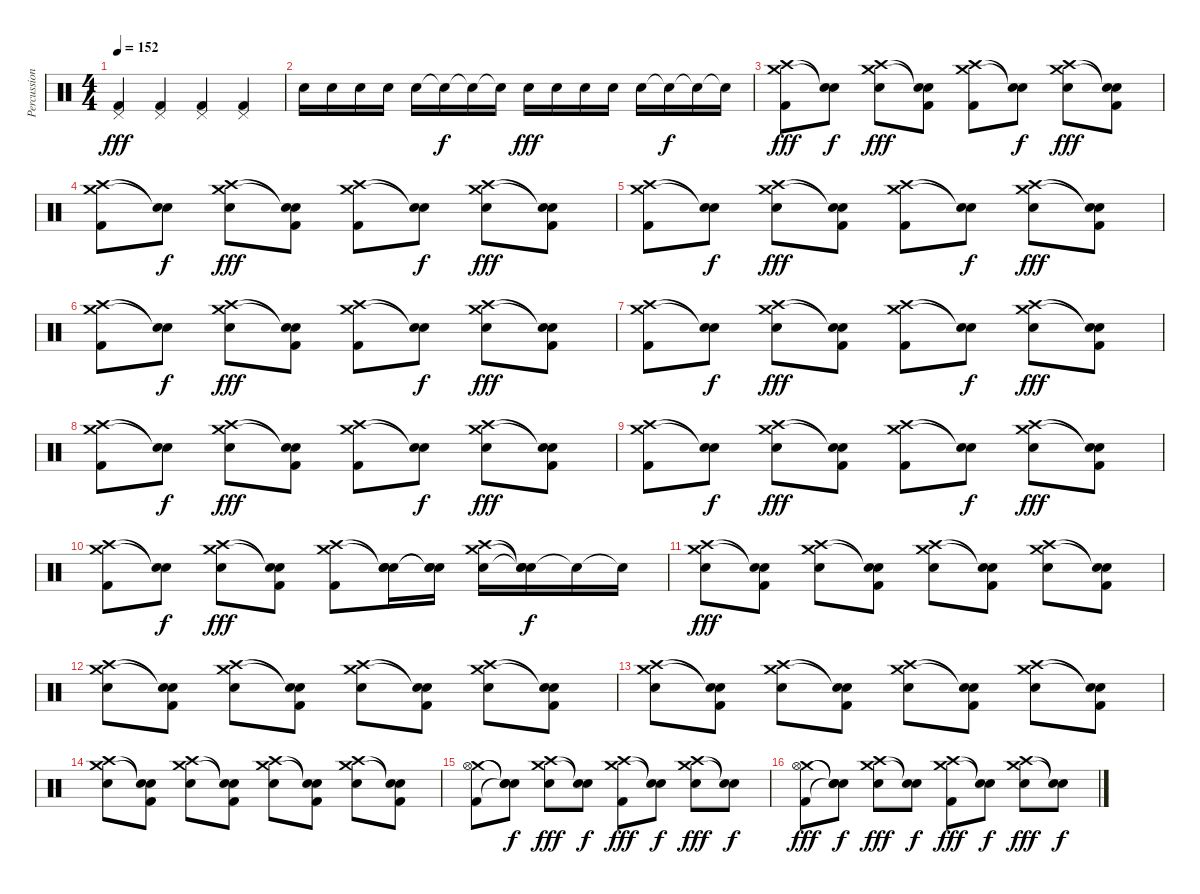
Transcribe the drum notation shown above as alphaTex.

\track ("Percussion" "Percussion") {instrument percussion}
\staff {score}
\articulation defaults
\ts (4 4)
\tempo 152
\clef neutral
\ks c
("Pedal Hi-Hat (hit)" "Kick (hit) 2").4{dy fff} ("Pedal Hi-Hat (hit)" "Kick (hit) 2").4 ("Pedal Hi-Hat (hit)" "Kick (hit) 2").4 ("Pedal Hi-Hat (hit)" "Kick (hit) 2").4 |
"Electric Snare (hit)".16 "Electric Snare (hit)".16 "Electric Snare (hit)".16 "Electric Snare (hit)".16 "Electric Snare (hit)".16 "Snare (hit)"{t}.16{dy f} "Snare (hit)"{t}.16 "Snare (hit)"{t}.16 "Electric Snare (hit)".16{dy fff} "Electric Snare (hit)".16 "Electric Snare (hit)".16 "Electric Snare (hit)".16 "Electric Snare (hit)".16 "Snare (hit)"{t}.16{dy f} "Snare (hit)"{t}.16 "Snare (hit)"{t}.16 |
("Crash medium (hit)" "Crash high (hit)" "Kick (hit) 2").8{dy fff} ("Snare (hit)"{t} "Snare (hit)"{t}).8{dy f} ("Crash medium (hit)" "Crash high (hit)" "Electric Snare (hit)").8{dy fff} ("Snare (hit)"{t} "Snare (hit)"{t} "Kick (hit) 2").8 ("Crash medium (hit)" "Crash high (hit)" "Kick (hit) 2").8 ("Snare (hit)"{t} "Snare (hit)"{t}).8{dy f} ("Crash medium (hit)" "Crash high (hit)" "Electric Snare (hit)").8{dy fff} ("Snare (hit)"{t} "Snare (hit)"{t} "Kick (hit) 2").8 |
("Crash medium (hit)" "Crash high (hit)" "Kick (hit) 2").8 ("Snare (hit)"{t} "Snare (hit)"{t}).8{dy f} ("Crash medium (hit)" "Crash high (hit)" "Electric Snare (hit)").8{dy fff} ("Snare (hit)"{t} "Snare (hit)"{t} "Kick (hit) 2").8 ("Crash medium (hit)" "Crash high (hit)" "Kick (hit) 2").8 ("Snare (hit)"{t} "Snare (hit)"{t}).8{dy f} ("Crash medium (hit)" "Crash high (hit)" "Electric Snare (hit)").8{dy fff} ("Snare (hit)"{t} "Snare (hit)"{t} "Kick (hit) 2").8 |
("Crash medium (hit)" "Crash high (hit)" "Kick (hit) 2").8 ("Snare (hit)"{t} "Snare (hit)"{t}).8{dy f} ("Crash medium (hit)" "Crash high (hit)" "Electric Snare (hit)").8{dy fff} ("Snare (hit)"{t} "Snare (hit)"{t} "Kick (hit) 2").8 ("Crash medium (hit)" "Crash high (hit)" "Kick (hit) 2").8 ("Snare (hit)"{t} "Snare (hit)"{t}).8{dy f} ("Crash medium (hit)" "Crash high (hit)" "Electric Snare (hit)").8{dy fff} ("Snare (hit)"{t} "Snare (hit)"{t} "Kick (hit) 2").8 |
("Crash medium (hit)" "Crash high (hit)" "Kick (hit) 2").8 ("Snare (hit)"{t} "Snare (hit)"{t}).8{dy f} ("Crash medium (hit)" "Crash high (hit)" "Electric Snare (hit)").8{dy fff} ("Snare (hit)"{t} "Snare (hit)"{t} "Kick (hit) 2").8 ("Crash medium (hit)" "Crash high (hit)" "Kick (hit) 2").8 ("Snare (hit)"{t} "Snare (hit)"{t}).8{dy f} ("Crash medium (hit)" "Crash high (hit)" "Electric Snare (hit)").8{dy fff} ("Snare (hit)"{t} "Snare (hit)"{t} "Kick (hit) 2").8 |
("Crash medium (hit)" "Crash high (hit)" "Kick (hit) 2").8 ("Snare (hit)"{t} "Snare (hit)"{t}).8{dy f} ("Crash medium (hit)" "Crash high (hit)" "Electric Snare (hit)").8{dy fff} ("Snare (hit)"{t} "Snare (hit)"{t} "Kick (hit) 2").8 ("Crash medium (hit)" "Crash high (hit)" "Kick (hit) 2").8 ("Snare (hit)"{t} "Snare (hit)"{t}).8{dy f} ("Crash medium (hit)" "Crash high (hit)" "Electric Snare (hit)").8{dy fff} ("Snare (hit)"{t} "Snare (hit)"{t} "Kick (hit) 2").8 |
("Crash medium (hit)" "Crash high (hit)" "Kick (hit) 2").8 ("Snare (hit)"{t} "Snare (hit)"{t}).8{dy f} ("Crash medium (hit)" "Crash high (hit)" "Electric Snare (hit)").8{dy fff} ("Snare (hit)"{t} "Snare (hit)"{t} "Kick (hit) 2").8 ("Crash medium (hit)" "Crash high (hit)" "Kick (hit) 2").8 ("Snare (hit)"{t} "Snare (hit)"{t}).8{dy f} ("Crash medium (hit)" "Crash high (hit)" "Electric Snare (hit)").8{dy fff} ("Snare (hit)"{t} "Snare (hit)"{t} "Kick (hit) 2").8 |
("Crash medium (hit)" "Crash high (hit)" "Kick (hit) 2").8 ("Snare (hit)"{t} "Snare (hit)"{t}).8{dy f} ("Crash medium (hit)" "Crash high (hit)" "Electric Snare (hit)").8{dy fff} ("Snare (hit)"{t} "Snare (hit)"{t} "Kick (hit) 2").8 ("Crash medium (hit)" "Crash high (hit)" "Kick (hit) 2").8 ("Snare (hit)"{t} "Snare (hit)"{t}).8{dy f} ("Crash medium (hit)" "Crash high (hit)" "Electric Snare (hit)").8{dy fff} ("Snare (hit)"{t} "Snare (hit)"{t} "Kick (hit) 2").8 |
("Crash medium (hit)" "Crash high (hit)" "Kick (hit) 2").8 ("Snare (hit)"{t} "Snare (hit)"{t}).8{dy f} ("Crash medium (hit)" "Crash high (hit)" "Electric Snare (hit)").8{dy fff} ("Snare (hit)"{t} "Snare (hit)"{t} "Kick (hit) 2").8 ("Crash medium (hit)" "Crash high (hit)" "Kick (hit) 2").8 ("Snare (hit)"{t} "Snare (hit)"{t} "Electric Snare (hit)").16 ("Snare (hit)"{t} "Snare (hit)"{t} "Electric Snare (hit)").16 ("Crash medium (hit)" "Crash high (hit)" "Electric Snare (hit)").16 ("Snare (hit)"{t} "Snare (hit)"{t} "Electric Snare (hit)"{t}).16{dy f} "Electric Snare (hit)"{t}.16 "Snare (hit)"{t}.16 |
("Crash medium (hit)" "Crash high (hit)" "Electric Snare (hit)").8{dy fff} ("Snare (hit)"{t} "Snare (hit)"{t} "Kick (hit) 2").8 ("Crash medium (hit)" "Crash high (hit)" "Electric Snare (hit)").8 ("Snare (hit)"{t} "Snare (hit)"{t} "Kick (hit) 2").8 ("Crash medium (hit)" "Crash high (hit)" "Electric Snare (hit)").8 ("Snare (hit)"{t} "Snare (hit)"{t} "Kick (hit) 2").8 ("Crash medium (hit)" "Crash high (hit)" "Electric Snare (hit)").8 ("Snare (hit)"{t} "Snare (hit)"{t} "Kick (hit) 2").8 |
("Crash medium (hit)" "Crash high (hit)" "Electric Snare (hit)").8 ("Snare (hit)"{t} "Snare (hit)"{t} "Kick (hit) 2").8 ("Crash medium (hit)" "Crash high (hit)" "Electric Snare (hit)").8 ("Snare (hit)"{t} "Snare (hit)"{t} "Kick (hit) 2").8 ("Crash medium (hit)" "Crash high (hit)" "Electric Snare (hit)").8 ("Snare (hit)"{t} "Snare (hit)"{t} "Kick (hit) 2").8 ("Crash medium (hit)" "Crash high (hit)" "Electric Snare (hit)").8 ("Snare (hit)"{t} "Snare (hit)"{t} "Kick (hit) 2").8 |
("Crash medium (hit)" "Crash high (hit)" "Electric Snare (hit)").8 ("Snare (hit)"{t} "Snare (hit)"{t} "Kick (hit) 2").8 ("Crash medium (hit)" "Crash high (hit)" "Electric Snare (hit)").8 ("Snare (hit)"{t} "Snare (hit)"{t} "Kick (hit) 2").8 ("Crash medium (hit)" "Crash high (hit)" "Electric Snare (hit)").8 ("Snare (hit)"{t} "Snare (hit)"{t} "Kick (hit) 2").8 ("Crash medium (hit)" "Crash high (hit)" "Electric Snare (hit)").8 ("Snare (hit)"{t} "Snare (hit)"{t} "Kick (hit) 2").8 |
("Crash medium (hit)" "Crash high (hit)" "Electric Snare (hit)").8 ("Snare (hit)"{t} "Snare (hit)"{t} "Kick (hit) 2").8 ("Crash medium (hit)" "Crash high (hit)" "Electric Snare (hit)").8 ("Snare (hit)"{t} "Snare (hit)"{t} "Kick (hit) 2").8 ("Crash medium (hit)" "Crash high (hit)" "Electric Snare (hit)").8 ("Snare (hit)"{t} "Snare (hit)"{t} "Kick (hit) 2").8 ("Crash medium (hit)" "Crash high (hit)" "Electric Snare (hit)").8 ("Snare (hit)"{t} "Snare (hit)"{t} "Kick (hit) 2").8 |
("Crash medium (hit)" "Hi-Hat (open)" "Kick (hit) 2").8 ("Snare (hit)"{t} "Snare (hit)"{t} "Snare (hit)"{t}).8{dy f} ("Crash medium (hit)" "Crash high (hit)" "Electric Snare (hit)").8{dy fff} ("Snare (hit)"{t} "Snare (hit)"{t}).8{dy f} ("Crash medium (hit)" "Crash high (hit)" "Kick (hit) 2").8{dy fff} ("Snare (hit)"{t} "Snare (hit)"{t}).8{dy f} ("Crash medium (hit)" "Crash high (hit)" "Electric Snare (hit)").8{dy fff} ("Snare (hit)"{t} "Snare (hit)"{t}).8{dy f} |
("Crash medium (hit)" "Hi-Hat (open)" "Kick (hit) 2").8{dy fff} ("Snare (hit)"{t} "Snare (hit)"{t} "Snare (hit)"{t}).8{dy f} ("Crash medium (hit)" "Crash high (hit)" "Electric Snare (hit)").8{dy fff} ("Snare (hit)"{t} "Snare (hit)"{t}).8{dy f} ("Crash medium (hit)" "Crash high (hit)" "Kick (hit) 2").8{dy fff} ("Snare (hit)"{t} "Snare (hit)"{t}).8{dy f} ("Crash medium (hit)" "Crash high (hit)" "Electric Snare (hit)").8{dy fff} ("Snare (hit)"{t} "Snare (hit)"{t}).8{dy f}
